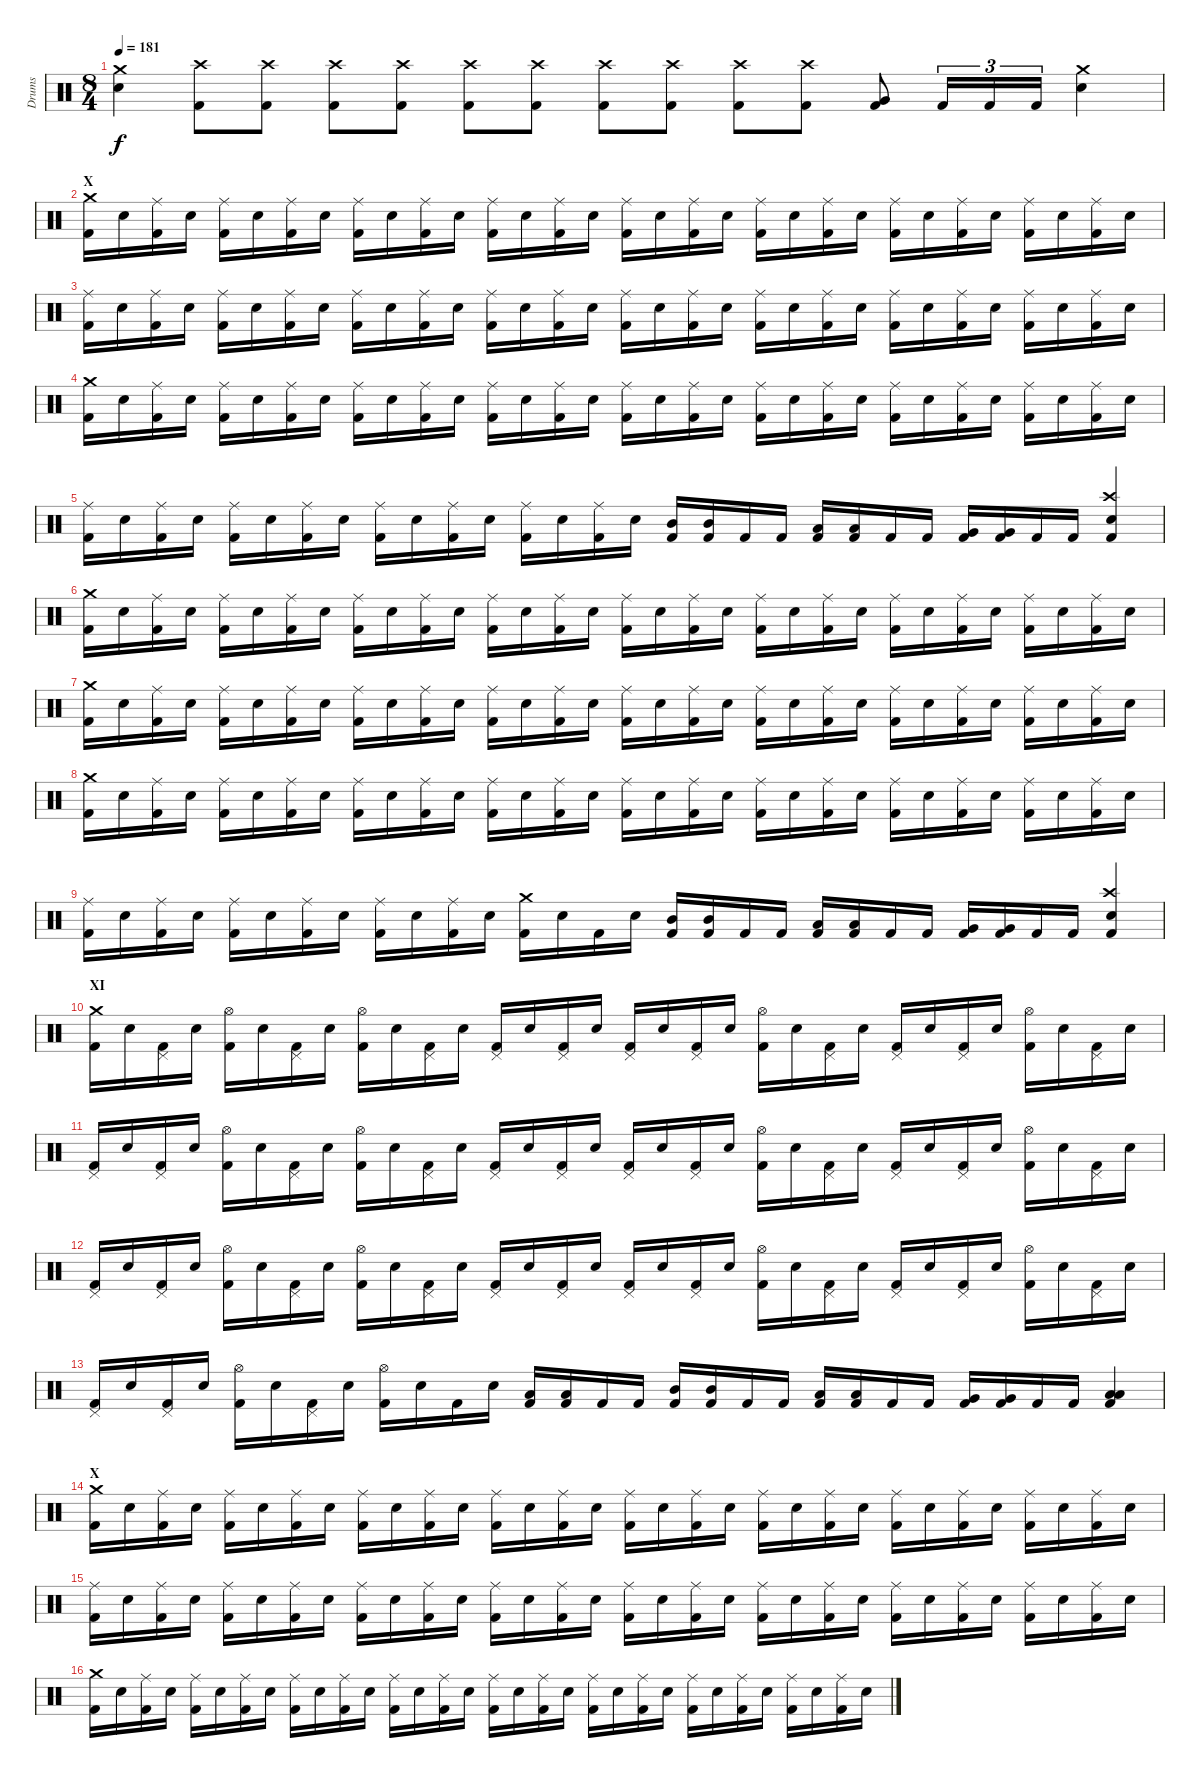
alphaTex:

\track ("Drums" "Drums") {instrument percussion}
\staff {score}
\articulation defaults
\ts (8 4)
\tempo 181
\clef neutral
\ks c
("Crash medium (hit)" "Electric Snare (hit)").4{dy f} ("Crash high (hit)" "Kick (hit) 2").8 ("Crash high (hit)" "Kick (hit) 2").8 ("Crash high (hit)" "Kick (hit) 2").8 ("Crash high (hit)" "Kick (hit) 2").8 ("Crash high (hit)" "Kick (hit) 2").8 ("Crash high (hit)" "Kick (hit) 2").8 ("Crash high (hit)" "Kick (hit) 2").8 ("Crash high (hit)" "Kick (hit) 2").8 ("Crash high (hit)" "Kick (hit) 2").8 ("Crash high (hit)" "Kick (hit) 2").8 ("Very Low Tom (hit)" "Kick (hit) 2").8 "Kick (hit) 2".16{tu (3 2)} "Kick (hit) 2".16{tu (3 2)} "Kick (hit) 2".16{tu (3 2)} ("Crash medium (hit)" "Electric Snare (hit)").4 |
\section ("" "X")
("Crash medium (hit)" "Kick (hit) 2").16 "Electric Snare (hit)".16 ("Ride (middle)" "Kick (hit) 2").16 "Electric Snare (hit)".16 ("Ride (middle)" "Kick (hit) 2").16 "Electric Snare (hit)".16 ("Ride (middle)" "Kick (hit) 2").16 "Electric Snare (hit)".16 ("Ride (middle)" "Kick (hit) 2").16 "Electric Snare (hit)".16 ("Ride (middle)" "Kick (hit) 2").16 "Electric Snare (hit)".16 ("Ride (middle)" "Kick (hit) 2").16 "Electric Snare (hit)".16 ("Ride (middle)" "Kick (hit) 2").16 "Electric Snare (hit)".16 ("Ride (middle)" "Kick (hit) 2").16 "Electric Snare (hit)".16 ("Ride (middle)" "Kick (hit) 2").16 "Electric Snare (hit)".16 ("Ride (middle)" "Kick (hit) 2").16 "Electric Snare (hit)".16 ("Ride (middle)" "Kick (hit) 2").16 "Electric Snare (hit)".16 ("Ride (middle)" "Kick (hit) 2").16 "Electric Snare (hit)".16 ("Ride (middle)" "Kick (hit) 2").16 "Electric Snare (hit)".16 ("Ride (middle)" "Kick (hit) 2").16 "Electric Snare (hit)".16 ("Ride (middle)" "Kick (hit) 2").16 "Electric Snare (hit)".16 |
("Ride (middle)" "Kick (hit) 2").16 "Electric Snare (hit)".16 ("Ride (middle)" "Kick (hit) 2").16 "Electric Snare (hit)".16 ("Ride (middle)" "Kick (hit) 2").16 "Electric Snare (hit)".16 ("Ride (middle)" "Kick (hit) 2").16 "Electric Snare (hit)".16 ("Ride (middle)" "Kick (hit) 2").16 "Electric Snare (hit)".16 ("Ride (middle)" "Kick (hit) 2").16 "Electric Snare (hit)".16 ("Ride (middle)" "Kick (hit) 2").16 "Electric Snare (hit)".16 ("Ride (middle)" "Kick (hit) 2").16 "Electric Snare (hit)".16 ("Ride (middle)" "Kick (hit) 2").16 "Electric Snare (hit)".16 ("Ride (middle)" "Kick (hit) 2").16 "Electric Snare (hit)".16 ("Ride (middle)" "Kick (hit) 2").16 "Electric Snare (hit)".16 ("Ride (middle)" "Kick (hit) 2").16 "Electric Snare (hit)".16 ("Ride (middle)" "Kick (hit) 2").16 "Electric Snare (hit)".16 ("Ride (middle)" "Kick (hit) 2").16 "Electric Snare (hit)".16 ("Ride (middle)" "Kick (hit) 2").16 "Electric Snare (hit)".16 ("Ride (middle)" "Kick (hit) 2").16 "Electric Snare (hit)".16 |
("Crash medium (hit)" "Kick (hit) 2").16 "Electric Snare (hit)".16 ("Ride (middle)" "Kick (hit) 2").16 "Electric Snare (hit)".16 ("Ride (middle)" "Kick (hit) 2").16 "Electric Snare (hit)".16 ("Ride (middle)" "Kick (hit) 2").16 "Electric Snare (hit)".16 ("Ride (middle)" "Kick (hit) 2").16 "Electric Snare (hit)".16 ("Ride (middle)" "Kick (hit) 2").16 "Electric Snare (hit)".16 ("Ride (middle)" "Kick (hit) 2").16 "Electric Snare (hit)".16 ("Ride (middle)" "Kick (hit) 2").16 "Electric Snare (hit)".16 ("Ride (middle)" "Kick (hit) 2").16 "Electric Snare (hit)".16 ("Ride (middle)" "Kick (hit) 2").16 "Electric Snare (hit)".16 ("Ride (middle)" "Kick (hit) 2").16 "Electric Snare (hit)".16 ("Ride (middle)" "Kick (hit) 2").16 "Electric Snare (hit)".16 ("Ride (middle)" "Kick (hit) 2").16 "Electric Snare (hit)".16 ("Ride (middle)" "Kick (hit) 2").16 "Electric Snare (hit)".16 ("Ride (middle)" "Kick (hit) 2").16 "Electric Snare (hit)".16 ("Ride (middle)" "Kick (hit) 2").16 "Electric Snare (hit)".16 |
("Ride (middle)" "Kick (hit) 2").16 "Electric Snare (hit)".16 ("Ride (middle)" "Kick (hit) 2").16 "Electric Snare (hit)".16 ("Ride (middle)" "Kick (hit) 2").16 "Electric Snare (hit)".16 ("Ride (middle)" "Kick (hit) 2").16 "Electric Snare (hit)".16 ("Ride (middle)" "Kick (hit) 2").16 "Electric Snare (hit)".16 ("Ride (middle)" "Kick (hit) 2").16 "Electric Snare (hit)".16 ("Ride (middle)" "Kick (hit) 2").16 "Electric Snare (hit)".16 ("Ride (middle)" "Kick (hit) 2").16 "Electric Snare (hit)".16 ("Mid Tom (hit)" "Kick (hit) 2").16 ("Mid Tom (hit)" "Kick (hit) 2").16 "Kick (hit) 2".16 "Kick (hit) 2".16 ("Low Tom (hit)" "Kick (hit) 2").16 ("Low Tom (hit)" "Kick (hit) 2").16 "Kick (hit) 2".16 "Kick (hit) 2".16 ("Very Low Tom (hit)" "Kick (hit) 2").16 ("Very Low Tom (hit)" "Kick (hit) 2").16 "Kick (hit) 2".16 "Kick (hit) 2".16 ("Crash high (hit)" "Electric Snare (hit)" "Kick (hit) 2").4 |
("Crash medium (hit)" "Kick (hit) 2").16 "Electric Snare (hit)".16 ("Ride (middle)" "Kick (hit) 2").16 "Electric Snare (hit)".16 ("Ride (middle)" "Kick (hit) 2").16 "Electric Snare (hit)".16 ("Ride (middle)" "Kick (hit) 2").16 "Electric Snare (hit)".16 ("Ride (middle)" "Kick (hit) 2").16 "Electric Snare (hit)".16 ("Ride (middle)" "Kick (hit) 2").16 "Electric Snare (hit)".16 ("Ride (middle)" "Kick (hit) 2").16 "Electric Snare (hit)".16 ("Ride (middle)" "Kick (hit) 2").16 "Electric Snare (hit)".16 ("Ride (middle)" "Kick (hit) 2").16 "Electric Snare (hit)".16 ("Ride (middle)" "Kick (hit) 2").16 "Electric Snare (hit)".16 ("Ride (middle)" "Kick (hit) 2").16 "Electric Snare (hit)".16 ("Ride (middle)" "Kick (hit) 2").16 "Electric Snare (hit)".16 ("Ride (middle)" "Kick (hit) 2").16 "Electric Snare (hit)".16 ("Ride (middle)" "Kick (hit) 2").16 "Electric Snare (hit)".16 ("Ride (middle)" "Kick (hit) 2").16 "Electric Snare (hit)".16 ("Ride (middle)" "Kick (hit) 2").16 "Electric Snare (hit)".16 |
("Crash medium (hit)" "Kick (hit) 2").16 "Electric Snare (hit)".16 ("Ride (middle)" "Kick (hit) 2").16 "Electric Snare (hit)".16 ("Ride (middle)" "Kick (hit) 2").16 "Electric Snare (hit)".16 ("Ride (middle)" "Kick (hit) 2").16 "Electric Snare (hit)".16 ("Ride (middle)" "Kick (hit) 2").16 "Electric Snare (hit)".16 ("Ride (middle)" "Kick (hit) 2").16 "Electric Snare (hit)".16 ("Ride (middle)" "Kick (hit) 2").16 "Electric Snare (hit)".16 ("Ride (middle)" "Kick (hit) 2").16 "Electric Snare (hit)".16 ("Ride (middle)" "Kick (hit) 2").16 "Electric Snare (hit)".16 ("Ride (middle)" "Kick (hit) 2").16 "Electric Snare (hit)".16 ("Ride (middle)" "Kick (hit) 2").16 "Electric Snare (hit)".16 ("Ride (middle)" "Kick (hit) 2").16 "Electric Snare (hit)".16 ("Ride (middle)" "Kick (hit) 2").16 "Electric Snare (hit)".16 ("Ride (middle)" "Kick (hit) 2").16 "Electric Snare (hit)".16 ("Ride (middle)" "Kick (hit) 2").16 "Electric Snare (hit)".16 ("Ride (middle)" "Kick (hit) 2").16 "Electric Snare (hit)".16 |
("Crash medium (hit)" "Kick (hit) 2").16 "Electric Snare (hit)".16 ("Ride (middle)" "Kick (hit) 2").16 "Electric Snare (hit)".16 ("Ride (middle)" "Kick (hit) 2").16 "Electric Snare (hit)".16 ("Ride (middle)" "Kick (hit) 2").16 "Electric Snare (hit)".16 ("Ride (middle)" "Kick (hit) 2").16 "Electric Snare (hit)".16 ("Ride (middle)" "Kick (hit) 2").16 "Electric Snare (hit)".16 ("Ride (middle)" "Kick (hit) 2").16 "Electric Snare (hit)".16 ("Ride (middle)" "Kick (hit) 2").16 "Electric Snare (hit)".16 ("Ride (middle)" "Kick (hit) 2").16 "Electric Snare (hit)".16 ("Ride (middle)" "Kick (hit) 2").16 "Electric Snare (hit)".16 ("Ride (middle)" "Kick (hit) 2").16 "Electric Snare (hit)".16 ("Ride (middle)" "Kick (hit) 2").16 "Electric Snare (hit)".16 ("Ride (middle)" "Kick (hit) 2").16 "Electric Snare (hit)".16 ("Ride (middle)" "Kick (hit) 2").16 "Electric Snare (hit)".16 ("Ride (middle)" "Kick (hit) 2").16 "Electric Snare (hit)".16 ("Ride (middle)" "Kick (hit) 2").16 "Electric Snare (hit)".16 |
("Ride (middle)" "Kick (hit) 2").16 "Electric Snare (hit)".16 ("Ride (middle)" "Kick (hit) 2").16 "Electric Snare (hit)".16 ("Ride (middle)" "Kick (hit) 2").16 "Electric Snare (hit)".16 ("Ride (middle)" "Kick (hit) 2").16 "Electric Snare (hit)".16 ("Ride (middle)" "Kick (hit) 2").16 "Electric Snare (hit)".16 ("Ride (middle)" "Kick (hit) 2").16 "Electric Snare (hit)".16 ("Crash medium (hit)" "Kick (hit) 2").16 "Electric Snare (hit)".16 "Kick (hit) 2".16 "Electric Snare (hit)".16 ("Mid Tom (hit)" "Kick (hit) 2").16 ("Mid Tom (hit)" "Kick (hit) 2").16 "Kick (hit) 2".16 "Kick (hit) 2".16 ("Low Tom (hit)" "Kick (hit) 2").16 ("Low Tom (hit)" "Kick (hit) 2").16 "Kick (hit) 2".16 "Kick (hit) 2".16 ("Very Low Tom (hit)" "Kick (hit) 2").16 ("Very Low Tom (hit)" "Kick (hit) 2").16 "Kick (hit) 2".16 "Kick (hit) 2".16 ("Crash high (hit)" "Electric Snare (hit)" "Kick (hit) 2").4 |
\section ("" "XI")
("Crash medium (hit)" "Kick (hit) 2").16 "Electric Snare (hit)".16 ("Pedal Hi-Hat (hit)" "Kick (hit) 2").16 "Electric Snare (hit)".16 ("Hi-Hat (open)" "Kick (hit) 2").16 "Electric Snare (hit)".16 ("Pedal Hi-Hat (hit)" "Kick (hit) 2").16 "Electric Snare (hit)".16 ("Hi-Hat (open)" "Kick (hit) 2").16 "Electric Snare (hit)".16 ("Pedal Hi-Hat (hit)" "Kick (hit) 2").16 "Electric Snare (hit)".16 ("Pedal Hi-Hat (hit)" "Kick (hit) 2").16 "Electric Snare (hit)".16 ("Pedal Hi-Hat (hit)" "Kick (hit) 2").16 "Electric Snare (hit)".16 ("Pedal Hi-Hat (hit)" "Kick (hit) 2").16 "Electric Snare (hit)".16 ("Pedal Hi-Hat (hit)" "Kick (hit) 2").16 "Electric Snare (hit)".16 ("Hi-Hat (open)" "Kick (hit) 2").16 "Electric Snare (hit)".16 ("Pedal Hi-Hat (hit)" "Kick (hit) 2").16 "Electric Snare (hit)".16 ("Pedal Hi-Hat (hit)" "Kick (hit) 2").16 "Electric Snare (hit)".16 ("Pedal Hi-Hat (hit)" "Kick (hit) 2").16 "Electric Snare (hit)".16 ("Hi-Hat (open)" "Kick (hit) 2").16 "Electric Snare (hit)".16 ("Pedal Hi-Hat (hit)" "Kick (hit) 2").16 "Electric Snare (hit)".16 |
("Pedal Hi-Hat (hit)" "Kick (hit) 2").16 "Electric Snare (hit)".16 ("Pedal Hi-Hat (hit)" "Kick (hit) 2").16 "Electric Snare (hit)".16 ("Hi-Hat (open)" "Kick (hit) 2").16 "Electric Snare (hit)".16 ("Pedal Hi-Hat (hit)" "Kick (hit) 2").16 "Electric Snare (hit)".16 ("Hi-Hat (open)" "Kick (hit) 2").16 "Electric Snare (hit)".16 ("Pedal Hi-Hat (hit)" "Kick (hit) 2").16 "Electric Snare (hit)".16 ("Pedal Hi-Hat (hit)" "Kick (hit) 2").16 "Electric Snare (hit)".16 ("Pedal Hi-Hat (hit)" "Kick (hit) 2").16 "Electric Snare (hit)".16 ("Pedal Hi-Hat (hit)" "Kick (hit) 2").16 "Electric Snare (hit)".16 ("Pedal Hi-Hat (hit)" "Kick (hit) 2").16 "Electric Snare (hit)".16 ("Hi-Hat (open)" "Kick (hit) 2").16 "Electric Snare (hit)".16 ("Pedal Hi-Hat (hit)" "Kick (hit) 2").16 "Electric Snare (hit)".16 ("Pedal Hi-Hat (hit)" "Kick (hit) 2").16 "Electric Snare (hit)".16 ("Pedal Hi-Hat (hit)" "Kick (hit) 2").16 "Electric Snare (hit)".16 ("Hi-Hat (open)" "Kick (hit) 2").16 "Electric Snare (hit)".16 ("Pedal Hi-Hat (hit)" "Kick (hit) 2").16 "Electric Snare (hit)".16 |
("Pedal Hi-Hat (hit)" "Kick (hit) 2").16 "Electric Snare (hit)".16 ("Pedal Hi-Hat (hit)" "Kick (hit) 2").16 "Electric Snare (hit)".16 ("Hi-Hat (open)" "Kick (hit) 2").16 "Electric Snare (hit)".16 ("Pedal Hi-Hat (hit)" "Kick (hit) 2").16 "Electric Snare (hit)".16 ("Hi-Hat (open)" "Kick (hit) 2").16 "Electric Snare (hit)".16 ("Pedal Hi-Hat (hit)" "Kick (hit) 2").16 "Electric Snare (hit)".16 ("Pedal Hi-Hat (hit)" "Kick (hit) 2").16 "Electric Snare (hit)".16 ("Pedal Hi-Hat (hit)" "Kick (hit) 2").16 "Electric Snare (hit)".16 ("Pedal Hi-Hat (hit)" "Kick (hit) 2").16 "Electric Snare (hit)".16 ("Pedal Hi-Hat (hit)" "Kick (hit) 2").16 "Electric Snare (hit)".16 ("Hi-Hat (open)" "Kick (hit) 2").16 "Electric Snare (hit)".16 ("Pedal Hi-Hat (hit)" "Kick (hit) 2").16 "Electric Snare (hit)".16 ("Pedal Hi-Hat (hit)" "Kick (hit) 2").16 "Electric Snare (hit)".16 ("Pedal Hi-Hat (hit)" "Kick (hit) 2").16 "Electric Snare (hit)".16 ("Hi-Hat (open)" "Kick (hit) 2").16 "Electric Snare (hit)".16 ("Pedal Hi-Hat (hit)" "Kick (hit) 2").16 "Electric Snare (hit)".16 |
("Pedal Hi-Hat (hit)" "Kick (hit) 2").16 "Electric Snare (hit)".16 ("Pedal Hi-Hat (hit)" "Kick (hit) 2").16 "Electric Snare (hit)".16 ("Hi-Hat (open)" "Kick (hit) 2").16 "Electric Snare (hit)".16 ("Pedal Hi-Hat (hit)" "Kick (hit) 2").16 "Electric Snare (hit)".16 ("Hi-Hat (open)" "Kick (hit) 2").16 "Electric Snare (hit)".16 "Kick (hit) 2".16 "Electric Snare (hit)".16 ("Low Tom (hit)" "Kick (hit) 2").16 ("Low Tom (hit)" "Kick (hit) 2").16 "Kick (hit) 2".16 "Kick (hit) 2".16 ("Mid Tom (hit)" "Kick (hit) 2").16 ("Mid Tom (hit)" "Kick (hit) 2").16 "Kick (hit) 2".16 "Kick (hit) 2".16 ("Low Tom (hit)" "Kick (hit) 2").16 ("Low Tom (hit)" "Kick (hit) 2").16 "Kick (hit) 2".16 "Kick (hit) 2".16 ("Very Low Tom (hit)" "Kick (hit) 2").16 ("Very Low Tom (hit)" "Kick (hit) 2").16 "Kick (hit) 2".16 "Kick (hit) 2".16 ("Low Floor Tom (hit)" "Low Floor Tom (hit)" "Kick (hit) 2").4 |
\section ("" "X")
("Crash medium (hit)" "Kick (hit) 2").16 "Electric Snare (hit)".16 ("Ride (middle)" "Kick (hit) 2").16 "Electric Snare (hit)".16 ("Ride (middle)" "Kick (hit) 2").16 "Electric Snare (hit)".16 ("Ride (middle)" "Kick (hit) 2").16 "Electric Snare (hit)".16 ("Ride (middle)" "Kick (hit) 2").16 "Electric Snare (hit)".16 ("Ride (middle)" "Kick (hit) 2").16 "Electric Snare (hit)".16 ("Ride (middle)" "Kick (hit) 2").16 "Electric Snare (hit)".16 ("Ride (middle)" "Kick (hit) 2").16 "Electric Snare (hit)".16 ("Ride (middle)" "Kick (hit) 2").16 "Electric Snare (hit)".16 ("Ride (middle)" "Kick (hit) 2").16 "Electric Snare (hit)".16 ("Ride (middle)" "Kick (hit) 2").16 "Electric Snare (hit)".16 ("Ride (middle)" "Kick (hit) 2").16 "Electric Snare (hit)".16 ("Ride (middle)" "Kick (hit) 2").16 "Electric Snare (hit)".16 ("Ride (middle)" "Kick (hit) 2").16 "Electric Snare (hit)".16 ("Ride (middle)" "Kick (hit) 2").16 "Electric Snare (hit)".16 ("Ride (middle)" "Kick (hit) 2").16 "Electric Snare (hit)".16 |
("Ride (middle)" "Kick (hit) 2").16 "Electric Snare (hit)".16 ("Ride (middle)" "Kick (hit) 2").16 "Electric Snare (hit)".16 ("Ride (middle)" "Kick (hit) 2").16 "Electric Snare (hit)".16 ("Ride (middle)" "Kick (hit) 2").16 "Electric Snare (hit)".16 ("Ride (middle)" "Kick (hit) 2").16 "Electric Snare (hit)".16 ("Ride (middle)" "Kick (hit) 2").16 "Electric Snare (hit)".16 ("Ride (middle)" "Kick (hit) 2").16 "Electric Snare (hit)".16 ("Ride (middle)" "Kick (hit) 2").16 "Electric Snare (hit)".16 ("Ride (middle)" "Kick (hit) 2").16 "Electric Snare (hit)".16 ("Ride (middle)" "Kick (hit) 2").16 "Electric Snare (hit)".16 ("Ride (middle)" "Kick (hit) 2").16 "Electric Snare (hit)".16 ("Ride (middle)" "Kick (hit) 2").16 "Electric Snare (hit)".16 ("Ride (middle)" "Kick (hit) 2").16 "Electric Snare (hit)".16 ("Ride (middle)" "Kick (hit) 2").16 "Electric Snare (hit)".16 ("Ride (middle)" "Kick (hit) 2").16 "Electric Snare (hit)".16 ("Ride (middle)" "Kick (hit) 2").16 "Electric Snare (hit)".16 |
("Crash medium (hit)" "Kick (hit) 2").16 "Electric Snare (hit)".16 ("Ride (middle)" "Kick (hit) 2").16 "Electric Snare (hit)".16 ("Ride (middle)" "Kick (hit) 2").16 "Electric Snare (hit)".16 ("Ride (middle)" "Kick (hit) 2").16 "Electric Snare (hit)".16 ("Ride (middle)" "Kick (hit) 2").16 "Electric Snare (hit)".16 ("Ride (middle)" "Kick (hit) 2").16 "Electric Snare (hit)".16 ("Ride (middle)" "Kick (hit) 2").16 "Electric Snare (hit)".16 ("Ride (middle)" "Kick (hit) 2").16 "Electric Snare (hit)".16 ("Ride (middle)" "Kick (hit) 2").16 "Electric Snare (hit)".16 ("Ride (middle)" "Kick (hit) 2").16 "Electric Snare (hit)".16 ("Ride (middle)" "Kick (hit) 2").16 "Electric Snare (hit)".16 ("Ride (middle)" "Kick (hit) 2").16 "Electric Snare (hit)".16 ("Ride (middle)" "Kick (hit) 2").16 "Electric Snare (hit)".16 ("Ride (middle)" "Kick (hit) 2").16 "Electric Snare (hit)".16 ("Ride (middle)" "Kick (hit) 2").16 "Electric Snare (hit)".16 ("Ride (middle)" "Kick (hit) 2").16 "Electric Snare (hit)".16
